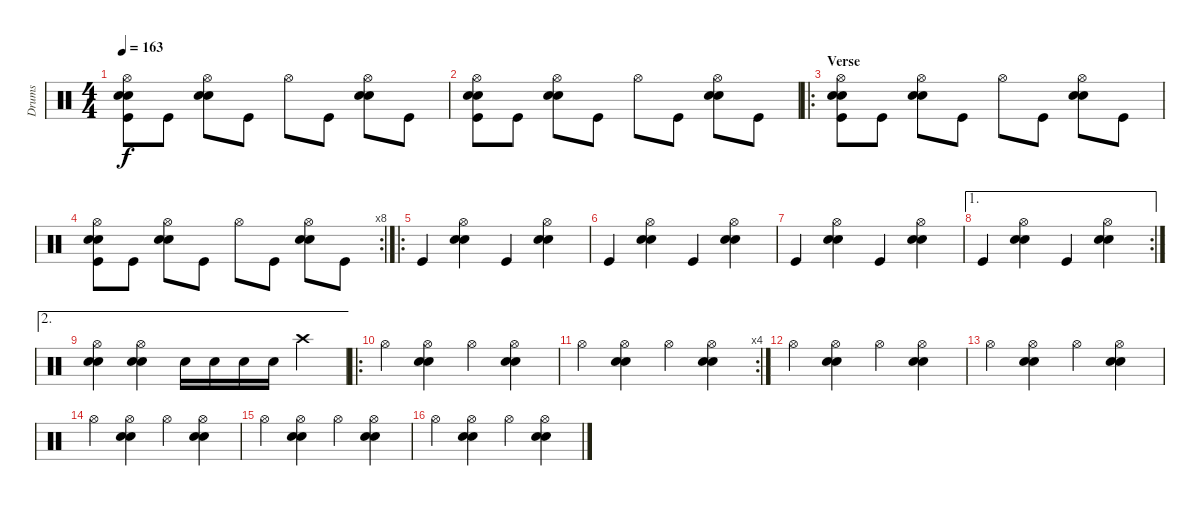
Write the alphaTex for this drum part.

\track ("Drums" "Drums") {instrument percussion}
\staff {score}
\articulation defaults
\ts (4 4)
\tempo 163
\clef neutral
\ks c
("Hi-Hat (open)" "Electric Snare (hit)" "Electric Snare (hit)" "Kick (hit)").8{dy f} "Kick (hit)".8 ("Hi-Hat (open)" "Electric Snare (hit)" "Electric Snare (hit)").8 "Kick (hit)".8 "Hi-Hat (open)".8 "Kick (hit)".8 ("Hi-Hat (open)" "Electric Snare (hit)" "Electric Snare (hit)").8 "Kick (hit)".8 |
("Hi-Hat (open)" "Electric Snare (hit)" "Electric Snare (hit)" "Kick (hit)").8 "Kick (hit)".8 ("Hi-Hat (open)" "Electric Snare (hit)" "Electric Snare (hit)").8 "Kick (hit)".8 "Hi-Hat (open)".8 "Kick (hit)".8 ("Hi-Hat (open)" "Electric Snare (hit)" "Electric Snare (hit)").8 "Kick (hit)".8 |
\ro
\section ("" "Verse")
("Hi-Hat (open)" "Electric Snare (hit)" "Electric Snare (hit)" "Kick (hit)").8 "Kick (hit)".8 ("Hi-Hat (open)" "Electric Snare (hit)" "Electric Snare (hit)").8 "Kick (hit)".8 "Hi-Hat (open)".8 "Kick (hit)".8 ("Hi-Hat (open)" "Electric Snare (hit)" "Electric Snare (hit)").8 "Kick (hit)".8 |
\rc 8
("Hi-Hat (open)" "Electric Snare (hit)" "Electric Snare (hit)" "Kick (hit)").8 "Kick (hit)".8 ("Hi-Hat (open)" "Electric Snare (hit)" "Electric Snare (hit)").8 "Kick (hit)".8 "Hi-Hat (open)".8 "Kick (hit)".8 ("Hi-Hat (open)" "Electric Snare (hit)" "Electric Snare (hit)").8 "Kick (hit)".8 |
\ro "Kick (hit)".4
("Hi-Hat (open)" "Electric Snare (hit)" "Electric Snare (hit)").4 "Kick (hit)".4 ("Hi-Hat (open)" "Electric Snare (hit)" "Electric Snare (hit)").4 |
"Kick (hit)".4 ("Hi-Hat (open)" "Electric Snare (hit)" "Electric Snare (hit)").4 "Kick (hit)".4 ("Hi-Hat (open)" "Electric Snare (hit)" "Electric Snare (hit)").4 |
"Kick (hit)".4 ("Hi-Hat (open)" "Electric Snare (hit)" "Electric Snare (hit)").4 "Kick (hit)".4 ("Hi-Hat (open)" "Electric Snare (hit)" "Electric Snare (hit)").4 |
\ae 1
\rc 2 "Kick (hit)".4
("Hi-Hat (open)" "Electric Snare (hit)" "Electric Snare (hit)").4 "Kick (hit)".4 ("Hi-Hat (open)" "Electric Snare (hit)" "Electric Snare (hit)").4 |
\ae 2
("Hi-Hat (open)" "Electric Snare (hit)" "Electric Snare (hit)").4 ("Hi-Hat (open)" "Electric Snare (hit)" "Electric Snare (hit)").4 "Electric Snare (hit)".16 "Electric Snare (hit)".16 "Electric Snare (hit)".16 "Electric Snare (hit)".16 "Crash high (hit)".4 |
\ro "Hi-Hat (open)".4
("Hi-Hat (open)" "Electric Snare (hit)" "Electric Snare (hit)").4 "Hi-Hat (open)".4 ("Hi-Hat (open)" "Electric Snare (hit)" "Electric Snare (hit)").4 |
\rc 4 "Hi-Hat (open)".4
("Hi-Hat (open)" "Electric Snare (hit)" "Electric Snare (hit)").4 "Hi-Hat (open)".4 ("Hi-Hat (open)" "Electric Snare (hit)" "Electric Snare (hit)").4 |
"Hi-Hat (open)".4 ("Hi-Hat (open)" "Electric Snare (hit)" "Electric Snare (hit)").4 "Hi-Hat (open)".4 ("Hi-Hat (open)" "Electric Snare (hit)" "Electric Snare (hit)").4 |
"Hi-Hat (open)".4 ("Hi-Hat (open)" "Electric Snare (hit)" "Electric Snare (hit)").4 "Hi-Hat (open)".4 ("Hi-Hat (open)" "Electric Snare (hit)" "Electric Snare (hit)").4 |
"Hi-Hat (open)".4 ("Hi-Hat (open)" "Electric Snare (hit)" "Electric Snare (hit)").4 "Hi-Hat (open)".4 ("Hi-Hat (open)" "Electric Snare (hit)" "Electric Snare (hit)").4 |
"Hi-Hat (open)".4 ("Hi-Hat (open)" "Electric Snare (hit)" "Electric Snare (hit)").4 "Hi-Hat (open)".4 ("Hi-Hat (open)" "Electric Snare (hit)" "Electric Snare (hit)").4 |
"Hi-Hat (open)".4 ("Hi-Hat (open)" "Electric Snare (hit)" "Electric Snare (hit)").4 "Hi-Hat (open)".4 ("Hi-Hat (open)" "Electric Snare (hit)" "Electric Snare (hit)").4
